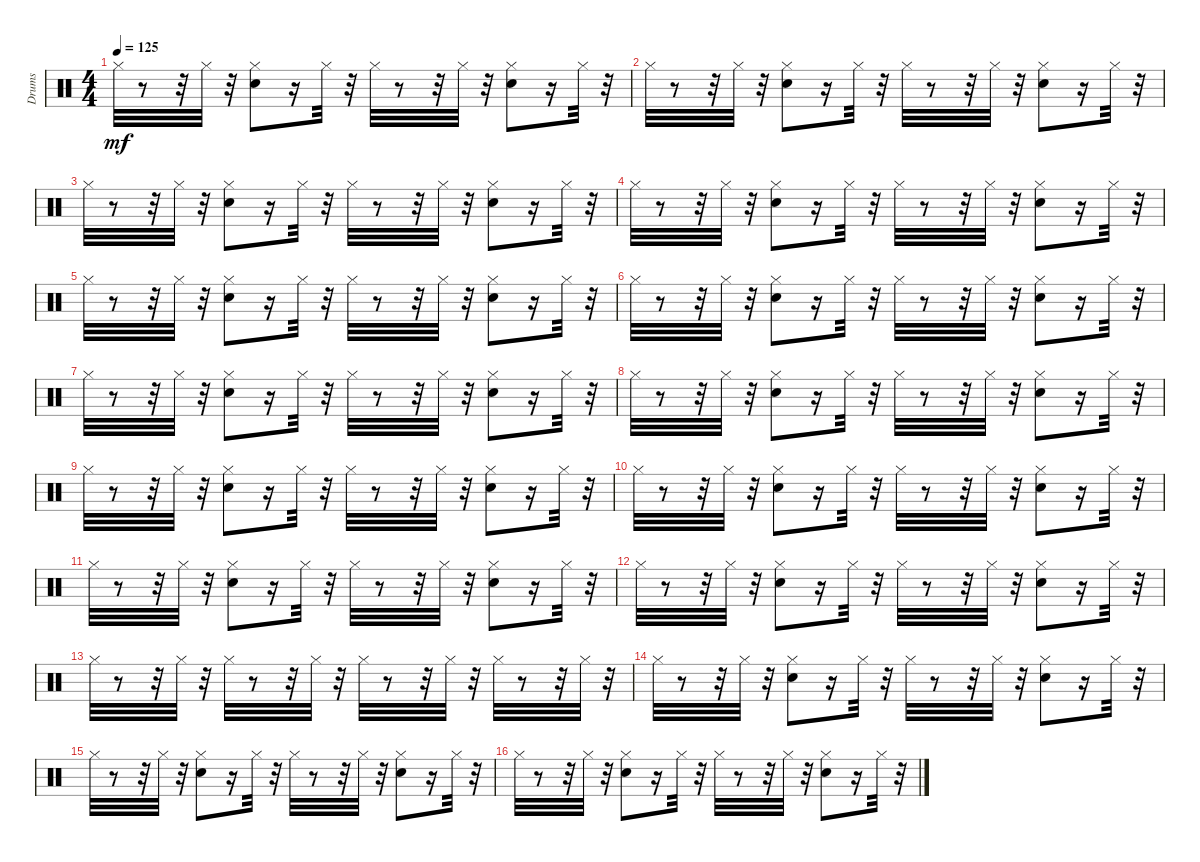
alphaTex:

\track ("Drums" "Drums") {instrument percussion}
\staff {score}
\articulation defaults
\ts (4 4)
\tempo 125
\clef neutral
\ks c "Hi-Hat (closed)".32{dy mf}
r.8 r.32 "Hi-Hat (closed)".32 r.32 ("Snare (hit) 2" "Hi-Hat (closed)").8 r.16 "Hi-Hat (closed)".32 r.32 "Hi-Hat (closed)".32 r.8 r.32 "Hi-Hat (closed)".32 r.32 ("Snare (hit) 2" "Hi-Hat (closed)").8 r.16 "Hi-Hat (closed)".32 r.32 |
"Hi-Hat (closed)".32 r.8 r.32 "Hi-Hat (closed)".32 r.32 ("Snare (hit) 2" "Hi-Hat (closed)").8 r.16 "Hi-Hat (closed)".32 r.32 "Hi-Hat (closed)".32 r.8 r.32 "Hi-Hat (closed)".32 r.32 ("Snare (hit) 2" "Hi-Hat (closed)").8 r.16 "Hi-Hat (closed)".32 r.32 |
"Hi-Hat (closed)".32 r.8 r.32 "Hi-Hat (closed)".32 r.32 ("Snare (hit) 2" "Hi-Hat (closed)").8 r.16 "Hi-Hat (closed)".32 r.32 "Hi-Hat (closed)".32 r.8 r.32 "Hi-Hat (closed)".32 r.32 ("Snare (hit) 2" "Hi-Hat (closed)").8 r.16 "Hi-Hat (closed)".32 r.32 |
"Hi-Hat (closed)".32 r.8 r.32 "Hi-Hat (closed)".32 r.32 ("Snare (hit) 2" "Hi-Hat (closed)").8 r.16 "Hi-Hat (closed)".32 r.32 "Hi-Hat (closed)".32 r.8 r.32 "Hi-Hat (closed)".32 r.32 ("Snare (hit) 2" "Hi-Hat (closed)").8 r.16 "Hi-Hat (closed)".32 r.32 |
"Hi-Hat (closed)".32 r.8 r.32 "Hi-Hat (closed)".32 r.32 ("Snare (hit) 2" "Hi-Hat (closed)").8 r.16 "Hi-Hat (closed)".32 r.32 "Hi-Hat (closed)".32 r.8 r.32 "Hi-Hat (closed)".32 r.32 ("Snare (hit) 2" "Hi-Hat (closed)").8 r.16 "Hi-Hat (closed)".32 r.32 |
"Hi-Hat (closed)".32 r.8 r.32 "Hi-Hat (closed)".32 r.32 ("Snare (hit) 2" "Hi-Hat (closed)").8 r.16 "Hi-Hat (closed)".32 r.32 "Hi-Hat (closed)".32 r.8 r.32 "Hi-Hat (closed)".32 r.32 ("Snare (hit) 2" "Hi-Hat (closed)").8 r.16 "Hi-Hat (closed)".32 r.32 |
"Hi-Hat (closed)".32 r.8 r.32 "Hi-Hat (closed)".32 r.32 ("Snare (hit) 2" "Hi-Hat (closed)").8 r.16 "Hi-Hat (closed)".32 r.32 "Hi-Hat (closed)".32 r.8 r.32 "Hi-Hat (closed)".32 r.32 ("Snare (hit) 2" "Hi-Hat (closed)").8 r.16 "Hi-Hat (closed)".32 r.32 |
"Hi-Hat (closed)".32 r.8 r.32 "Hi-Hat (closed)".32 r.32 ("Snare (hit) 2" "Hi-Hat (closed)").8 r.16 "Hi-Hat (closed)".32 r.32 "Hi-Hat (closed)".32 r.8 r.32 "Hi-Hat (closed)".32 r.32 ("Snare (hit) 2" "Hi-Hat (closed)").8 r.16 "Hi-Hat (closed)".32 r.32 |
"Hi-Hat (closed)".32 r.8 r.32 "Hi-Hat (closed)".32 r.32 ("Snare (hit) 2" "Hi-Hat (closed)").8 r.16 "Hi-Hat (closed)".32 r.32 "Hi-Hat (closed)".32 r.8 r.32 "Hi-Hat (closed)".32 r.32 ("Snare (hit) 2" "Hi-Hat (closed)").8 r.16 "Hi-Hat (closed)".32 r.32 |
"Hi-Hat (closed)".32 r.8 r.32 "Hi-Hat (closed)".32 r.32 ("Snare (hit) 2" "Hi-Hat (closed)").8 r.16 "Hi-Hat (closed)".32 r.32 "Hi-Hat (closed)".32 r.8 r.32 "Hi-Hat (closed)".32 r.32 ("Snare (hit) 2" "Hi-Hat (closed)").8 r.16 "Hi-Hat (closed)".32 r.32 |
"Hi-Hat (closed)".32 r.8 r.32 "Hi-Hat (closed)".32 r.32 ("Snare (hit) 2" "Hi-Hat (closed)").8 r.16 "Hi-Hat (closed)".32 r.32 "Hi-Hat (closed)".32 r.8 r.32 "Hi-Hat (closed)".32 r.32 ("Snare (hit) 2" "Hi-Hat (closed)").8 r.16 "Hi-Hat (closed)".32 r.32 |
"Hi-Hat (closed)".32 r.8 r.32 "Hi-Hat (closed)".32 r.32 ("Snare (hit) 2" "Hi-Hat (closed)").8 r.16 "Hi-Hat (closed)".32 r.32 "Hi-Hat (closed)".32 r.8 r.32 "Hi-Hat (closed)".32 r.32 ("Snare (hit) 2" "Hi-Hat (closed)").8 r.16 "Hi-Hat (closed)".32 r.32 |
"Hi-Hat (closed)".32 r.8 r.32 "Hi-Hat (closed)".32 r.32 "Hi-Hat (closed)".32 r.8 r.32 "Hi-Hat (closed)".32 r.32 "Hi-Hat (closed)".32 r.8 r.32 "Hi-Hat (closed)".32 r.32 "Hi-Hat (closed)".32 r.8 r.32 "Hi-Hat (closed)".32 r.32 |
"Hi-Hat (closed)".32 r.8 r.32 "Hi-Hat (closed)".32 r.32 ("Snare (hit) 2" "Hi-Hat (closed)").8 r.16 "Hi-Hat (closed)".32 r.32 "Hi-Hat (closed)".32 r.8 r.32 "Hi-Hat (closed)".32 r.32 ("Snare (hit) 2" "Hi-Hat (closed)").8 r.16 "Hi-Hat (closed)".32 r.32 |
"Hi-Hat (closed)".32 r.8 r.32 "Hi-Hat (closed)".32 r.32 ("Snare (hit) 2" "Hi-Hat (closed)").8 r.16 "Hi-Hat (closed)".32 r.32 "Hi-Hat (closed)".32 r.8 r.32 "Hi-Hat (closed)".32 r.32 ("Snare (hit) 2" "Hi-Hat (closed)").8 r.16 "Hi-Hat (closed)".32 r.32 |
"Hi-Hat (closed)".32 r.8 r.32 "Hi-Hat (closed)".32 r.32 ("Snare (hit) 2" "Hi-Hat (closed)").8 r.16 "Hi-Hat (closed)".32 r.32 "Hi-Hat (closed)".32 r.8 r.32 "Hi-Hat (closed)".32 r.32 ("Snare (hit) 2" "Hi-Hat (closed)").8 r.16 "Hi-Hat (closed)".32 r.32
